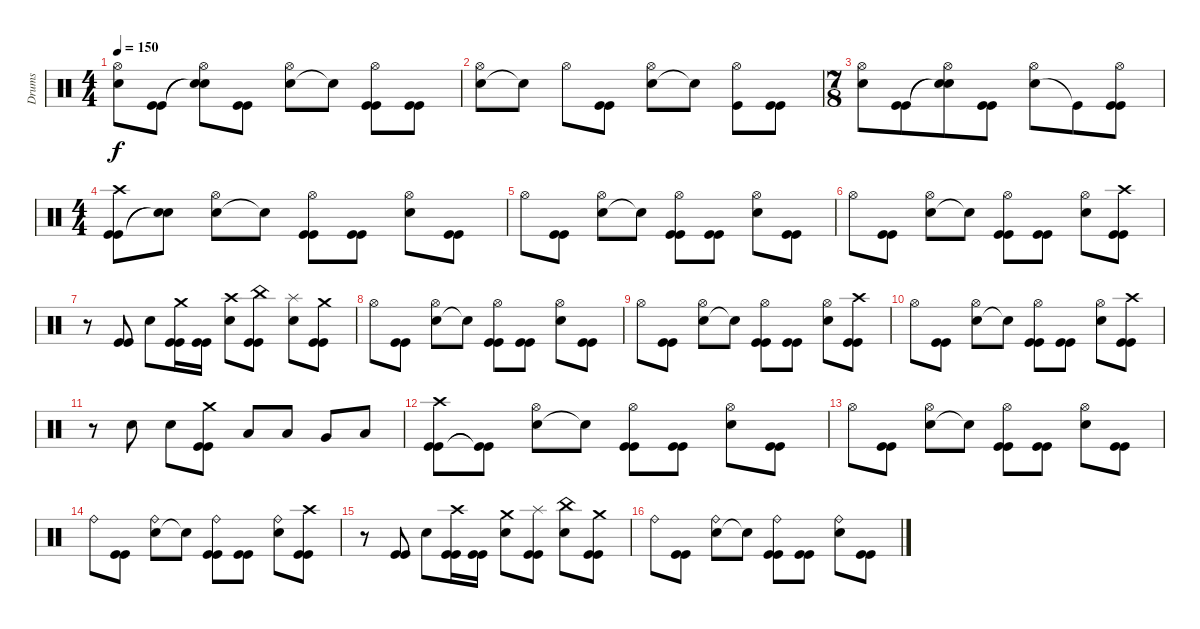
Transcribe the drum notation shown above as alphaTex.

\track ("Drums" "Drums") {instrument percussion}
\staff {score}
\articulation defaults
\ts (4 4)
\tempo 150
\clef neutral
\ks c
("Snare (hit) 2" "Hi-Hat (open)").8{dy f} ("Kick (hit)" "Kick (hit)").8 ("Snare (hit)"{t} "Snare (hit)"{t} "Hi-Hat (open)").8 ("Kick (hit)" "Kick (hit)").8 ("Snare (hit) 2" "Hi-Hat (open)").8 "Snare (hit)"{t}.8 ("Kick (hit)" "Kick (hit)" "Hi-Hat (open)").8 ("Kick (hit)" "Kick (hit)").8 |
("Snare (hit) 2" "Hi-Hat (open)").8 "Snare (hit)"{t}.8 "Hi-Hat (open)".8 ("Kick (hit)" "Kick (hit)").8 ("Snare (hit) 2" "Hi-Hat (open)").8 "Snare (hit)"{t}.8 ("Kick (hit)" "Hi-Hat (open)").8 ("Kick (hit)" "Kick (hit)").8 |
\ts (7 8)
("Snare (hit) 2" "Hi-Hat (open)").8 ("Kick (hit)" "Kick (hit)").8 ("Snare (hit)"{t} "Snare (hit)"{t} "Hi-Hat (open)").8 ("Kick (hit)" "Kick (hit)").8 ("Snare (hit) 2" "Hi-Hat (open)").8 "Kick (hit)"{t}.8 ("Kick (hit)" "Kick (hit)" "Hi-Hat (open)").8 |
\ts (4 4)
("Kick (hit)" "Kick (hit)" "Crash high (hit)").8 ("Snare (hit)"{t} "Snare (hit)"{t}).8 ("Snare (hit) 2" "Hi-Hat (open)").8 "Snare (hit)"{t}.8 ("Kick (hit)" "Kick (hit)" "Hi-Hat (open)").8 ("Kick (hit)" "Kick (hit)").8 ("Snare (hit) 2" "Hi-Hat (open)").8 ("Kick (hit)" "Kick (hit)").8 |
"Hi-Hat (open)".8 ("Kick (hit)" "Kick (hit)").8 ("Snare (hit) 2" "Hi-Hat (open)").8 "Snare (hit)"{t}.8 ("Kick (hit)" "Kick (hit)" "Hi-Hat (open)").8 ("Kick (hit)" "Kick (hit)").8 ("Snare (hit) 2" "Hi-Hat (open)").8 ("Kick (hit)" "Kick (hit)").8 |
"Hi-Hat (open)".8 ("Kick (hit)" "Kick (hit)").8 ("Snare (hit) 2" "Hi-Hat (open)").8 "Snare (hit)"{t}.8 ("Kick (hit)" "Kick (hit)" "Hi-Hat (open)").8 ("Kick (hit)" "Kick (hit)").8 ("Snare (hit) 2" "Hi-Hat (open)").8 ("Kick (hit)" "Kick (hit)" "Crash high (hit)").8 |
r.8 ("Kick (hit)" "Kick (hit)").8 "Snare (hit) 2".8 ("Kick (hit)" "Kick (hit)" "Crash medium (hit)").16 ("Kick (hit)" "Kick (hit)").16 ("Snare (hit) 2" "Crash high (hit)").8 ("Kick (hit)" "Kick (hit)" "China (hit)").8 ("Snare (hit) 2" "Splash (hit)").8 ("Kick (hit)" "Kick (hit)" "Crash medium (hit)").8 |
"Hi-Hat (open)".8 ("Kick (hit)" "Kick (hit)").8 ("Snare (hit) 2" "Hi-Hat (open)").8 "Snare (hit)"{t}.8 ("Kick (hit)" "Kick (hit)" "Hi-Hat (open)").8 ("Kick (hit)" "Kick (hit)").8 ("Snare (hit) 2" "Hi-Hat (open)").8 ("Kick (hit)" "Kick (hit)").8 |
"Hi-Hat (open)".8 ("Kick (hit)" "Kick (hit)").8 ("Snare (hit) 2" "Hi-Hat (open)").8 "Snare (hit)"{t}.8 ("Kick (hit)" "Kick (hit)" "Hi-Hat (open)").8 ("Kick (hit)" "Kick (hit)").8 ("Snare (hit) 2" "Hi-Hat (open)").8 ("Kick (hit)" "Kick (hit)" "Crash high (hit)").8 |
"Hi-Hat (open)".8 ("Kick (hit)" "Kick (hit)").8 ("Snare (hit) 2" "Hi-Hat (open)").8 "Snare (hit)"{t}.8 ("Kick (hit)" "Kick (hit)" "Hi-Hat (open)").8 ("Kick (hit)" "Kick (hit)").8 ("Snare (hit) 2" "Hi-Hat (open)").8 ("Kick (hit)" "Kick (hit)" "Crash high (hit)").8 |
r.8 "Snare (hit) 2".8 "Snare (hit) 2".8 ("Kick (hit)" "Kick (hit)" "Crash medium (hit)").8 "Low Tom (hit)".8 "Low Tom (hit)".8 "Very Low Tom (hit)".8 "Low Floor Tom (hit)".8 |
("Kick (hit)" "Kick (hit)" "Crash high (hit)").8 ("Kick (hit)"{t} "Kick (hit)"{t}).8 ("Snare (hit) 2" "Hi-Hat (open)").8 "Snare (hit)"{t}.8 ("Kick (hit)" "Kick (hit)" "Hi-Hat (open)").8 ("Kick (hit)" "Kick (hit)").8 ("Snare (hit) 2" "Hi-Hat (open)").8 ("Kick (hit)" "Kick (hit)").8 |
"Hi-Hat (open)".8 ("Kick (hit)" "Kick (hit)").8 ("Snare (hit) 2" "Hi-Hat (open)").8 "Snare (hit)"{t}.8 ("Kick (hit)" "Kick (hit)" "Hi-Hat (open)").8 ("Kick (hit)" "Kick (hit)").8 ("Snare (hit) 2" "Hi-Hat (open)").8 ("Kick (hit)" "Kick (hit)").8 |
"Ride (bell)".8 ("Kick (hit)" "Kick (hit)").8 ("Snare (hit) 2" "Ride (bell)").8 "Snare (hit)"{t}.8 ("Kick (hit)" "Kick (hit)" "Ride (bell)").8 ("Kick (hit)" "Kick (hit)").8 ("Snare (hit) 2" "Ride (bell)").8 ("Kick (hit)" "Kick (hit)" "Crash high (hit)").8 |
r.8 ("Kick (hit)" "Kick (hit)").8 "Snare (hit) 2".8 ("Kick (hit)" "Kick (hit)" "Crash high (hit)").16 ("Kick (hit)" "Kick (hit)").16 ("Snare (hit) 2" "Crash medium (hit)").8 ("Kick (hit)" "Kick (hit)" "Splash (hit)").8 ("Snare (hit) 2" "China (hit)").8 ("Kick (hit)" "Kick (hit)" "Crash medium (hit)").8 |
"Ride (bell)".8 ("Kick (hit)" "Kick (hit)").8 ("Snare (hit) 2" "Ride (bell)").8 "Snare (hit)"{t}.8 ("Kick (hit)" "Kick (hit)" "Ride (bell)").8 ("Kick (hit)" "Kick (hit)").8 ("Snare (hit) 2" "Ride (bell)").8 ("Kick (hit)" "Kick (hit)").8
